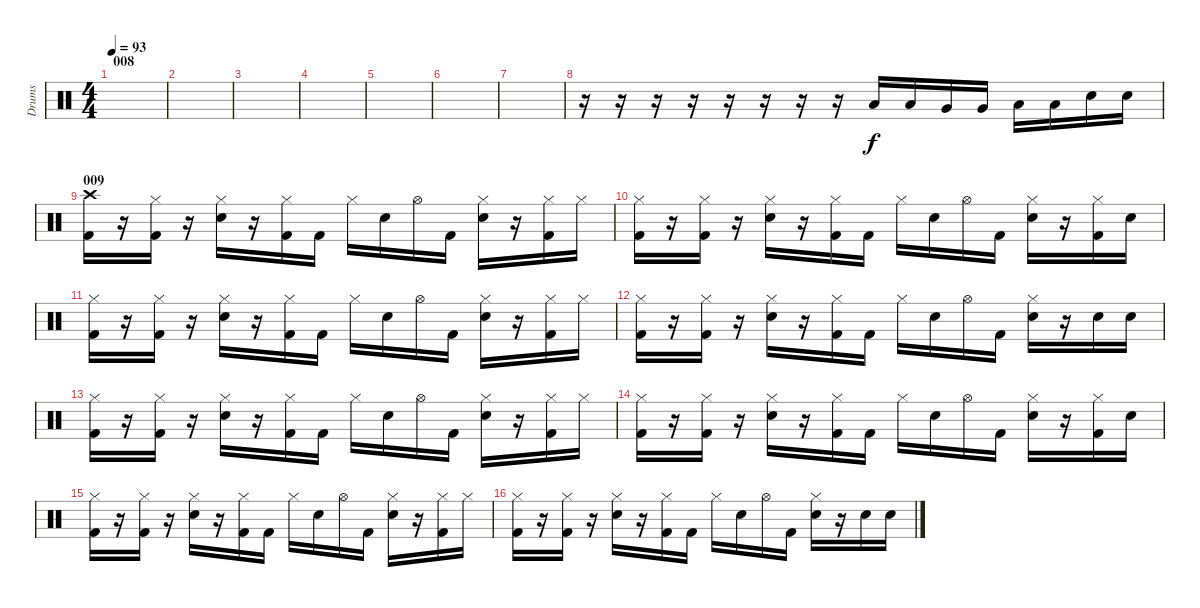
\track ("Drums" "Drums") {instrument percussion}
\staff {score}
\articulation defaults
\ts (4 4)
\section ("" "008")
\tempo 93
\clef neutral
\ks c
|
|
|
|
|
|
|
r.16 r.16 r.16 r.16 r.16 r.16 r.16 r.16 "Low Tom (hit)".16 "Low Tom (hit)".16 "Very Low Tom (hit)".16 "Very Low Tom (hit)".16 "Low Floor Tom (hit)".16 "Low Floor Tom (hit)".16 "Electric Snare (hit)".16 "Electric Snare (hit)".16 |
\section ("" "009")
("Kick (hit) 2" "Crash high (hit)").16 r.16 ("Kick (hit) 2" "Hi-Hat (closed)").16 r.16 ("Electric Snare (hit)" "Hi-Hat (closed)").16 r.16 ("Kick (hit) 2" "Hi-Hat (closed)").16 "Kick (hit) 2".16 "Hi-Hat (closed)".16 "Electric Snare (hit)".16 "Hi-Hat (open)".16 "Kick (hit) 2".16 ("Electric Snare (hit)" "Hi-Hat (closed)").16 r.16 ("Kick (hit) 2" "Hi-Hat (closed)").16 "Hi-Hat (closed)".16 |
("Kick (hit) 2" "Hi-Hat (closed)").16 r.16 ("Kick (hit) 2" "Hi-Hat (closed)").16 r.16 ("Electric Snare (hit)" "Hi-Hat (closed)").16 r.16 ("Kick (hit) 2" "Hi-Hat (closed)").16 "Kick (hit) 2".16 "Hi-Hat (closed)".16 "Electric Snare (hit)".16 "Hi-Hat (open)".16 "Kick (hit) 2".16 ("Electric Snare (hit)" "Hi-Hat (closed)").16 r.16 ("Kick (hit) 2" "Hi-Hat (closed)").16 "Electric Snare (hit)".16 |
("Kick (hit) 2" "Hi-Hat (closed)").16 r.16 ("Kick (hit) 2" "Hi-Hat (closed)").16 r.16 ("Electric Snare (hit)" "Hi-Hat (closed)").16 r.16 ("Kick (hit) 2" "Hi-Hat (closed)").16 "Kick (hit) 2".16 "Hi-Hat (closed)".16 "Electric Snare (hit)".16 "Hi-Hat (open)".16 "Kick (hit) 2".16 ("Electric Snare (hit)" "Hi-Hat (closed)").16 r.16 ("Kick (hit) 2" "Hi-Hat (closed)").16 "Hi-Hat (closed)".16 |
("Kick (hit) 2" "Hi-Hat (closed)").16 r.16 ("Kick (hit) 2" "Hi-Hat (closed)").16 r.16 ("Electric Snare (hit)" "Hi-Hat (closed)").16 r.16 ("Kick (hit) 2" "Hi-Hat (closed)").16 "Kick (hit) 2".16 "Hi-Hat (closed)".16 "Electric Snare (hit)".16 "Hi-Hat (open)".16 "Kick (hit) 2".16 ("Electric Snare (hit)" "Hi-Hat (closed)").16 r.16 "Electric Snare (hit)".16 "Electric Snare (hit)".16 |
("Kick (hit) 2" "Hi-Hat (closed)").16 r.16 ("Kick (hit) 2" "Hi-Hat (closed)").16 r.16 ("Electric Snare (hit)" "Hi-Hat (closed)").16 r.16 ("Kick (hit) 2" "Hi-Hat (closed)").16 "Kick (hit) 2".16 "Hi-Hat (closed)".16 "Electric Snare (hit)".16 "Hi-Hat (open)".16 "Kick (hit) 2".16 ("Electric Snare (hit)" "Hi-Hat (closed)").16 r.16 ("Kick (hit) 2" "Hi-Hat (closed)").16 "Hi-Hat (closed)".16 |
("Kick (hit) 2" "Hi-Hat (closed)").16 r.16 ("Kick (hit) 2" "Hi-Hat (closed)").16 r.16 ("Electric Snare (hit)" "Hi-Hat (closed)").16 r.16 ("Kick (hit) 2" "Hi-Hat (closed)").16 "Kick (hit) 2".16 "Hi-Hat (closed)".16 "Electric Snare (hit)".16 "Hi-Hat (open)".16 "Kick (hit) 2".16 ("Electric Snare (hit)" "Hi-Hat (closed)").16 r.16 ("Kick (hit) 2" "Hi-Hat (closed)").16 "Electric Snare (hit)".16 |
("Kick (hit) 2" "Hi-Hat (closed)").16 r.16 ("Kick (hit) 2" "Hi-Hat (closed)").16 r.16 ("Electric Snare (hit)" "Hi-Hat (closed)").16 r.16 ("Kick (hit) 2" "Hi-Hat (closed)").16 "Kick (hit) 2".16 "Hi-Hat (closed)".16 "Electric Snare (hit)".16 "Hi-Hat (open)".16 "Kick (hit) 2".16 ("Electric Snare (hit)" "Hi-Hat (closed)").16 r.16 ("Kick (hit) 2" "Hi-Hat (closed)").16 "Hi-Hat (closed)".16 |
("Kick (hit) 2" "Hi-Hat (closed)").16 r.16 ("Kick (hit) 2" "Hi-Hat (closed)").16 r.16 ("Electric Snare (hit)" "Hi-Hat (closed)").16 r.16 ("Kick (hit) 2" "Hi-Hat (closed)").16 "Kick (hit) 2".16 "Hi-Hat (closed)".16 "Electric Snare (hit)".16 "Hi-Hat (open)".16 "Kick (hit) 2".16 ("Electric Snare (hit)" "Hi-Hat (closed)").16 r.16 "Electric Snare (hit)".16 "Electric Snare (hit)".16
